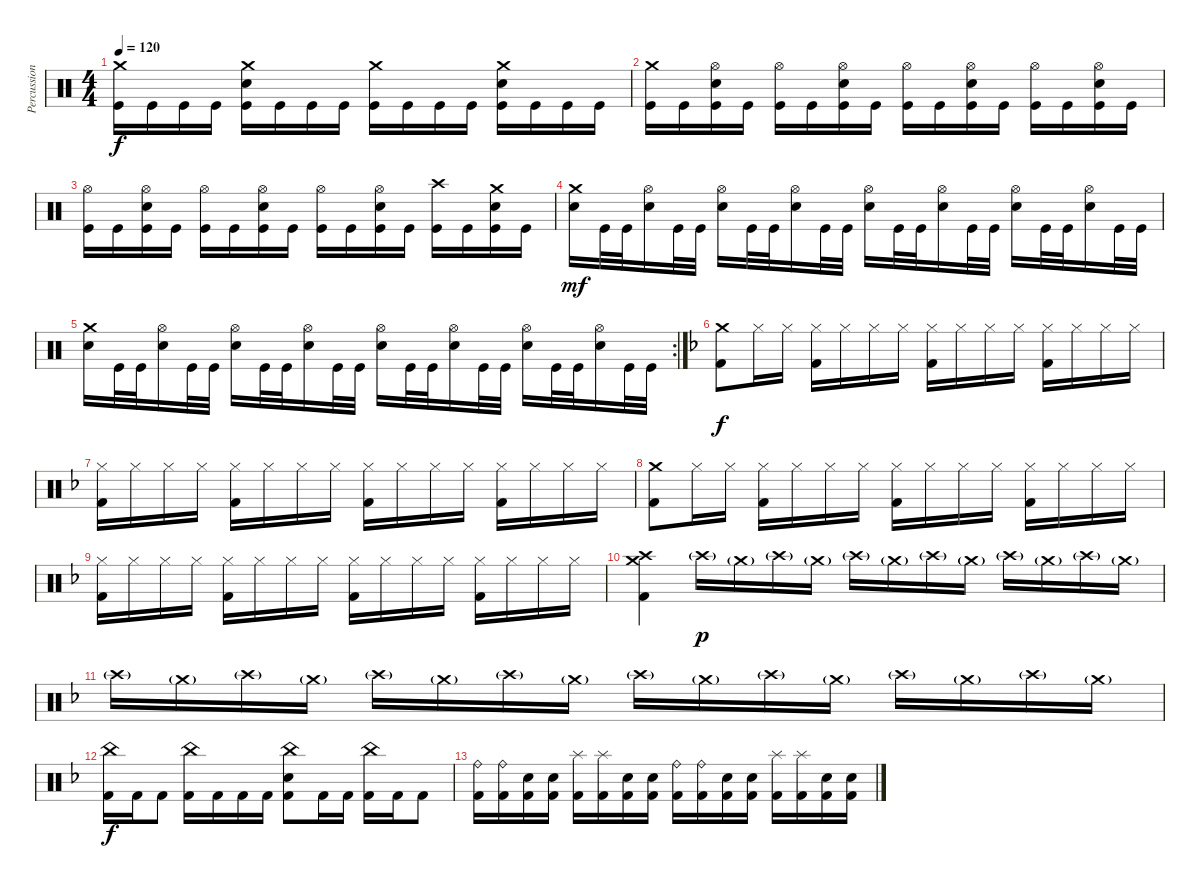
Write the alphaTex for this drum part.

\track ("Percussions" "Percussion") {instrument percussion}
\staff {score}
\articulation defaults
\ts (4 4)
\tempo 120
\clef neutral
\ks c
("Crash medium (hit)" "Kick (hit)").16{dy f} "Kick (hit)".16 "Kick (hit)".16 "Kick (hit)".16 ("Electric Snare (hit)" "Crash medium (hit)" "Kick (hit)").16 "Kick (hit)".16 "Kick (hit)".16 "Kick (hit)".16 ("Crash medium (hit)" "Kick (hit)").16 "Kick (hit)".16 "Kick (hit)".16 "Kick (hit)".16 ("Electric Snare (hit)" "Crash medium (hit)" "Kick (hit)").16 "Kick (hit)".16 "Kick (hit)".16 "Kick (hit)".16 |
("Crash medium (hit)" "Kick (hit)").16 "Kick (hit)".16 ("Hi-Hat (open)" "Electric Snare (hit)" "Kick (hit)").16 "Kick (hit)".16 ("Hi-Hat (open)" "Kick (hit)").16 "Kick (hit)".16 ("Hi-Hat (open)" "Electric Snare (hit)" "Kick (hit)").16 "Kick (hit)".16 ("Hi-Hat (open)" "Kick (hit)").16 "Kick (hit)".16 ("Hi-Hat (open)" "Electric Snare (hit)" "Kick (hit)").16 "Kick (hit)".16 ("Hi-Hat (open)" "Kick (hit)").16 "Kick (hit)".16 ("Hi-Hat (open)" "Electric Snare (hit)" "Kick (hit)").16 "Kick (hit)".16 |
("Hi-Hat (open)" "Kick (hit)").16 "Kick (hit)".16 ("Hi-Hat (open)" "Electric Snare (hit)" "Kick (hit)").16 "Kick (hit)".16 ("Hi-Hat (open)" "Kick (hit)").16 "Kick (hit)".16 ("Hi-Hat (open)" "Electric Snare (hit)" "Kick (hit)").16 "Kick (hit)".16 ("Hi-Hat (open)" "Kick (hit)").16 "Kick (hit)".16 ("Hi-Hat (open)" "Electric Snare (hit)" "Kick (hit)").16 "Kick (hit)".16 ("Crash high (hit)" "Kick (hit)").16 "Kick (hit)".16 ("Crash medium (hit)" "Electric Snare (hit)" "Kick (hit)").16 "Kick (hit)".16 |
("Crash medium (hit)" "Electric Snare (hit)").16{dy mf} "Kick (hit)".32 "Kick (hit)".32 ("Hi-Hat (open)" "Electric Snare (hit)").16 "Kick (hit)".32 "Kick (hit)".32 ("Hi-Hat (open)" "Electric Snare (hit)").16 "Kick (hit)".32 "Kick (hit)".32 ("Hi-Hat (open)" "Electric Snare (hit)").16 "Kick (hit)".32 "Kick (hit)".32 ("Hi-Hat (open)" "Electric Snare (hit)").16 "Kick (hit)".32 "Kick (hit)".32 ("Hi-Hat (open)" "Electric Snare (hit)").16 "Kick (hit)".32 "Kick (hit)".32 ("Hi-Hat (open)" "Electric Snare (hit)").16 "Kick (hit)".32 "Kick (hit)".32 ("Hi-Hat (open)" "Electric Snare (hit)").16 "Kick (hit)".32 "Kick (hit)".32 |
\rc 2
("Crash medium (hit)" "Electric Snare (hit)").16 "Kick (hit)".32 "Kick (hit)".32 ("Hi-Hat (open)" "Electric Snare (hit)").16 "Kick (hit)".32 "Kick (hit)".32 ("Hi-Hat (open)" "Electric Snare (hit)").16 "Kick (hit)".32 "Kick (hit)".32 ("Hi-Hat (open)" "Electric Snare (hit)").16 "Kick (hit)".32 "Kick (hit)".32 ("Hi-Hat (open)" "Electric Snare (hit)").16 "Kick (hit)".32 "Kick (hit)".32 ("Hi-Hat (open)" "Electric Snare (hit)").16 "Kick (hit)".32 "Kick (hit)".32 ("Hi-Hat (open)" "Electric Snare (hit)").16 "Kick (hit)".32 "Kick (hit)".32 ("Hi-Hat (open)" "Electric Snare (hit)").16 "Kick (hit)".32 "Kick (hit)".32 |
\ks f
("Crash medium (hit)" "Kick (hit) 2").8{dy f volume 10} "Hi-Hat (closed)".16 "Hi-Hat (closed)".16 ("Hi-Hat (closed)" "Kick (hit) 2").16 "Hi-Hat (closed)".16 "Hi-Hat (closed)".16 "Hi-Hat (closed)".16 ("Hi-Hat (closed)" "Kick (hit) 2").16 "Hi-Hat (closed)".16 "Hi-Hat (closed)".16 "Hi-Hat (closed)".16 ("Hi-Hat (closed)" "Kick (hit) 2").16 "Hi-Hat (closed)".16 "Hi-Hat (closed)".16 "Hi-Hat (closed)".16 |
("Hi-Hat (closed)" "Kick (hit) 2").16 "Hi-Hat (closed)".16 "Hi-Hat (closed)".16 "Hi-Hat (closed)".16 ("Hi-Hat (closed)" "Kick (hit) 2").16 "Hi-Hat (closed)".16 "Hi-Hat (closed)".16 "Hi-Hat (closed)".16 ("Hi-Hat (closed)" "Kick (hit) 2").16 "Hi-Hat (closed)".16 "Hi-Hat (closed)".16 "Hi-Hat (closed)".16 ("Hi-Hat (closed)" "Kick (hit) 2").16 "Hi-Hat (closed)".16 "Hi-Hat (closed)".16 "Hi-Hat (closed)".16 |
("Crash medium (hit)" "Kick (hit) 2").8 "Hi-Hat (closed)".16 "Hi-Hat (closed)".16 ("Hi-Hat (closed)" "Kick (hit) 2").16 "Hi-Hat (closed)".16 "Hi-Hat (closed)".16 "Hi-Hat (closed)".16 ("Hi-Hat (closed)" "Kick (hit) 2").16 "Hi-Hat (closed)".16 "Hi-Hat (closed)".16 "Hi-Hat (closed)".16 ("Hi-Hat (closed)" "Kick (hit) 2").16 "Hi-Hat (closed)".16 "Hi-Hat (closed)".16 "Hi-Hat (closed)".16 |
("Hi-Hat (closed)" "Kick (hit) 2").16 "Hi-Hat (closed)".16 "Hi-Hat (closed)".16 "Hi-Hat (closed)".16 ("Hi-Hat (closed)" "Kick (hit) 2").16 "Hi-Hat (closed)".16 "Hi-Hat (closed)".16 "Hi-Hat (closed)".16 ("Hi-Hat (closed)" "Kick (hit) 2").16 "Hi-Hat (closed)".16 "Hi-Hat (closed)".16 "Hi-Hat (closed)".16 ("Hi-Hat (closed)" "Kick (hit) 2").16 "Hi-Hat (closed)".16 "Hi-Hat (closed)".16 "Hi-Hat (closed)".16 |
("Crash medium (hit)" "Crash high (hit)" "Kick (hit) 2").4{volume 5} "Crash high (hit)"{g}.16{dy p} "Crash medium (hit)"{g}.16 "Crash high (hit)"{g}.16 "Crash medium (hit)"{g}.16 "Crash high (hit)"{g}.16 "Crash medium (hit)"{g}.16 "Crash high (hit)"{g}.16 "Crash medium (hit)"{g}.16 "Crash high (hit)"{g}.16 "Crash medium (hit)"{g}.16 "Crash high (hit)"{g}.16 "Crash medium (hit)"{g}.16 |
"Crash high (hit)"{g}.16 "Crash medium (hit)"{g}.16 "Crash high (hit)"{g}.16 "Crash medium (hit)"{g}.16 "Crash high (hit)"{g}.16 "Crash medium (hit)"{g}.16 "Crash high (hit)"{g}.16 "Crash medium (hit)"{g}.16 "Crash high (hit)"{g}.16 "Crash medium (hit)"{g}.16 "Crash high (hit)"{g}.16 "Crash medium (hit)"{g}.16 "Crash high (hit)"{g}.16 "Crash medium (hit)"{g}.16 "Crash high (hit)"{g}.16 "Crash medium (hit)"{g}.16 |
("China (hit)" "Kick (hit) 2").16{dy f} "Kick (hit) 2".16 "Kick (hit) 2".8 ("China (hit)" "Kick (hit) 2").16 "Kick (hit) 2".16 "Kick (hit) 2".16 "Kick (hit) 2".16 ("China (hit)" "Electric Snare (hit)" "Kick (hit) 2").8 "Kick (hit) 2".16 "Kick (hit) 2".16 ("China (hit)" "Kick (hit) 2").16 "Kick (hit) 2".16 "Kick (hit) 2".8 |
("Ride (bell)" "Kick (hit) 2").16 ("Ride (bell)" "Kick (hit) 2").16 ("Electric Snare (hit)" "Kick (hit) 2").16 ("Electric Snare (hit)" "Kick (hit) 2").16 ("Splash (hit)" "Kick (hit) 2").16 ("Splash (hit)" "Kick (hit) 2").16 ("Electric Snare (hit)" "Kick (hit) 2").16 ("Electric Snare (hit)" "Kick (hit) 2").16 ("Ride (bell)" "Kick (hit) 2").16 ("Ride (bell)" "Kick (hit) 2").16 ("Electric Snare (hit)" "Kick (hit) 2").16 ("Electric Snare (hit)" "Kick (hit) 2").16 ("Splash (hit)" "Kick (hit) 2").16 ("Splash (hit)" "Kick (hit) 2").16 ("Electric Snare (hit)" "Kick (hit) 2").16 ("Electric Snare (hit)" "Kick (hit) 2").16
